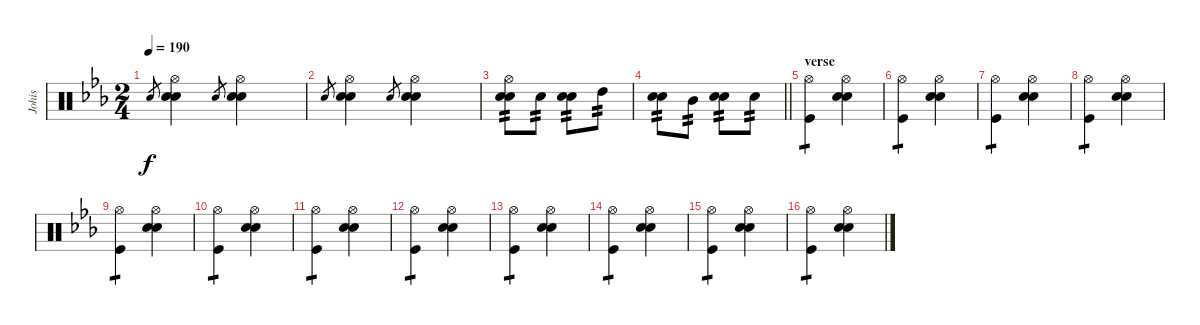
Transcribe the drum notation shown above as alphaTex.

\track ("Johis" "Johis") {instrument percussion}
\staff {score}
\articulation defaults
\ts (2 4)
\tempo 190
\clef neutral
\ks eb "Snare (hit) 2".8{gr dy f}
("Hi-Hat (open)" "Electric Snare (hit)" "Snare (hit) 2").4 "Snare (hit) 2".8{gr} ("Hi-Hat (open)" "Electric Snare (hit)" "Snare (hit) 2").4 |
"Snare (hit) 2".8{gr} ("Hi-Hat (open)" "Electric Snare (hit)" "Snare (hit) 2").4 "Snare (hit) 2".8{gr} ("Hi-Hat (open)" "Electric Snare (hit)" "Snare (hit) 2").4 |
("Hi-Hat (open)" "Electric Snare (hit)" "Snare (hit) 2").8{tp 2} "Electric Snare (hit)".8{tp 2} ("Electric Snare (hit)" "Snare (hit) 2").8{tp 2} "High Tom (hit)".8{tp 2} |
\barLineRight lightlight
("Electric Snare (hit)" "Snare (hit) 2").8{tp 2} "Mid Tom (hit)".8{tp 2} ("Electric Snare (hit)" "Snare (hit) 2").8{tp 2} "Electric Snare (hit)".8{tp 2} |
\section ("" "verse")
("Hi-Hat (open)" "Kick (hit)").4{tp 1} ("Hi-Hat (open)" "Electric Snare (hit)" "Snare (hit) 2").4 |
("Hi-Hat (open)" "Kick (hit)").4{tp 1} ("Hi-Hat (open)" "Electric Snare (hit)" "Snare (hit) 2").4 |
("Hi-Hat (open)" "Kick (hit)").4{tp 1} ("Hi-Hat (open)" "Electric Snare (hit)" "Snare (hit) 2").4 |
("Hi-Hat (open)" "Kick (hit)").4{tp 1} ("Hi-Hat (open)" "Electric Snare (hit)" "Snare (hit) 2").4 |
("Hi-Hat (open)" "Kick (hit)").4{tp 1} ("Hi-Hat (open)" "Electric Snare (hit)" "Snare (hit) 2").4 |
("Hi-Hat (open)" "Kick (hit)").4{tp 1} ("Hi-Hat (open)" "Electric Snare (hit)" "Snare (hit) 2").4 |
("Hi-Hat (open)" "Kick (hit)").4{tp 1} ("Hi-Hat (open)" "Electric Snare (hit)" "Snare (hit) 2").4 |
("Hi-Hat (open)" "Kick (hit)").4{tp 1} ("Hi-Hat (open)" "Electric Snare (hit)" "Snare (hit) 2").4 |
("Hi-Hat (open)" "Kick (hit)").4{tp 1} ("Hi-Hat (open)" "Electric Snare (hit)" "Snare (hit) 2").4 |
("Hi-Hat (open)" "Kick (hit)").4{tp 1} ("Hi-Hat (open)" "Electric Snare (hit)" "Snare (hit) 2").4 |
("Hi-Hat (open)" "Kick (hit)").4{tp 1} ("Hi-Hat (open)" "Electric Snare (hit)" "Snare (hit) 2").4 |
("Hi-Hat (open)" "Kick (hit)").4{tp 1} ("Hi-Hat (open)" "Electric Snare (hit)" "Snare (hit) 2").4
